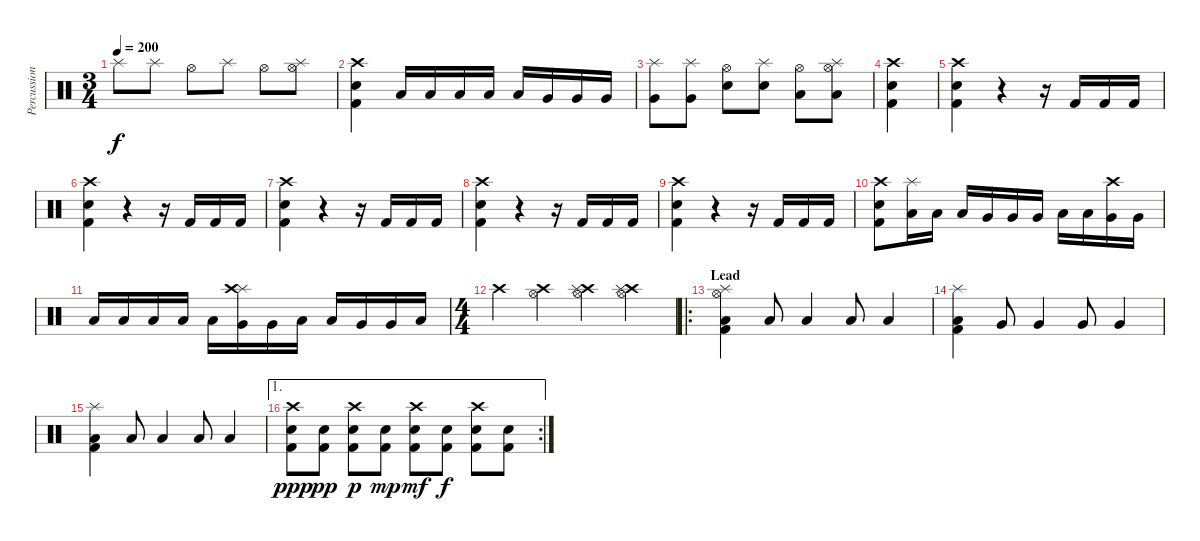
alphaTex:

\track ("Percussion" "Percussion") {instrument percussion}
\staff {score}
\articulation defaults
\ts (3 4)
\tempo 200
\clef neutral
\ks c "Splash (hit)".8{dy f} "Splash (hit)".8 "Hi-Hat (open)".8 "Splash (hit)".8 "Hi-Hat (open)".8
("Hi-Hat (open)" "Splash (hit)").8 |
("Crash high (hit)" "Kick (hit) 2" "Snare (hit) 2").4 "Low Tom (hit)".16 "Low Tom (hit)".16 "Low Tom (hit)".16 "Low Floor Tom (hit)".16 "Low Floor Tom (hit)".16 "Very Low Tom (hit)".16 "Very Low Tom (hit)".16 "Very Low Tom (hit)".16 |
("Very Low Tom (hit)" "Splash (hit)").8 ("Very Low Tom (hit)" "Splash (hit)").8 ("Electric Snare (hit)" "Hi-Hat (open)").8 ("Electric Snare (hit)" "Splash (hit)").8 ("Low Floor Tom (hit)" "Hi-Hat (open)").8 ("Low Floor Tom (hit)" "Hi-Hat (open)" "Splash (hit)").8 |
("Crash high (hit)" "Kick (hit) 2" "Snare (hit) 2").4 |
("Crash high (hit)" "Snare (hit) 2" "Kick (hit) 2").4 r.4 r.16 "Kick (hit) 2".16 "Kick (hit) 2".16 "Kick (hit) 2".16 |
("Crash high (hit)" "Snare (hit) 2" "Kick (hit) 2").4 r.4 r.16 "Kick (hit) 2".16 "Kick (hit) 2".16 "Kick (hit) 2".16 |
("Crash high (hit)" "Snare (hit) 2" "Kick (hit) 2").4 r.4 r.16 "Kick (hit) 2".16 "Kick (hit) 2".16 "Kick (hit) 2".16 |
("Crash high (hit)" "Snare (hit) 2" "Kick (hit) 2").4 r.4 r.16 "Kick (hit) 2".16 "Kick (hit) 2".16 "Kick (hit) 2".16 |
("Crash high (hit)" "Snare (hit) 2" "Kick (hit) 2").4 r.4 r.16 "Kick (hit) 2".16 "Kick (hit) 2".16 "Kick (hit) 2".16 |
("Crash high (hit)" "Snare (hit) 2" "Kick (hit) 2").8 ("Splash (hit)" "Low Floor Tom (hit)").16 "Low Floor Tom (hit)".16 "Low Floor Tom (hit)".16 "Very Low Tom (hit)".16 "Very Low Tom (hit)".16 "Very Low Tom (hit)".16 "Low Floor Tom (hit)".16 "Low Floor Tom (hit)".16 ("Crash high (hit)" "Very Low Tom (hit)").16 "Very Low Tom (hit)".16 |
"Low Floor Tom (hit)".16 "Low Floor Tom (hit)".16 "Low Tom (hit)".16 "Low Tom (hit)".16 "Low Tom (hit)".16 ("Splash (hit)" "Crash high (hit)" "Very Low Tom (hit)").16 "Very Low Tom (hit)".16 "Low Floor Tom (hit)".16 "Low Floor Tom (hit)".16 "Very Low Tom (hit)".16 "Very Low Tom (hit)".16 "Low Tom (hit)".16 |
\ts (4 4)
"Crash high (hit)".4 ("Crash high (hit)" "Hi-Hat (open)").4 ("Crash high (hit)" "Hi-Hat (open)" "Splash (hit)").4 ("Crash high (hit)" "Hi-Hat (open)" "Splash (hit)").4 |
\ro
\section ("" "Lead")
("Splash (hit)" "Hi-Hat (open)" "Low Tom (hit)" "Kick (hit) 2").4 "Low Floor Tom (hit)".8 "Low Floor Tom (hit)".4 "Low Floor Tom (hit)".8 "Low Floor Tom (hit)".4 |
("Splash (hit)" "Low Tom (hit)" "Kick (hit) 2").4 "Very Low Tom (hit)".8 "Very Low Tom (hit)".4 "Very Low Tom (hit)".8 "Very Low Tom (hit)".4 |
("Splash (hit)" "Low Tom (hit)" "Kick (hit) 2").4 "Low Tom (hit)".8 "Low Tom (hit)".4 "Low Tom (hit)".8 "Low Tom (hit)".4 |
\ae 1
\rc 2
("Crash high (hit)" "Snare (hit) 2" "Kick (hit) 2").8{dy ppp} ("Snare (hit) 2" "Kick (hit) 2").8{dy pp} ("Crash high (hit)" "Snare (hit) 2" "Kick (hit) 2").8{dy p} ("Snare (hit) 2" "Kick (hit) 2").8{dy mp} ("Crash high (hit)" "Snare (hit) 2" "Kick (hit) 2").8{dy mf} ("Snare (hit) 2" "Kick (hit) 2").8{dy f} ("Crash high (hit)" "Snare (hit) 2" "Kick (hit) 2").8 ("Snare (hit) 2" "Kick (hit) 2").8
